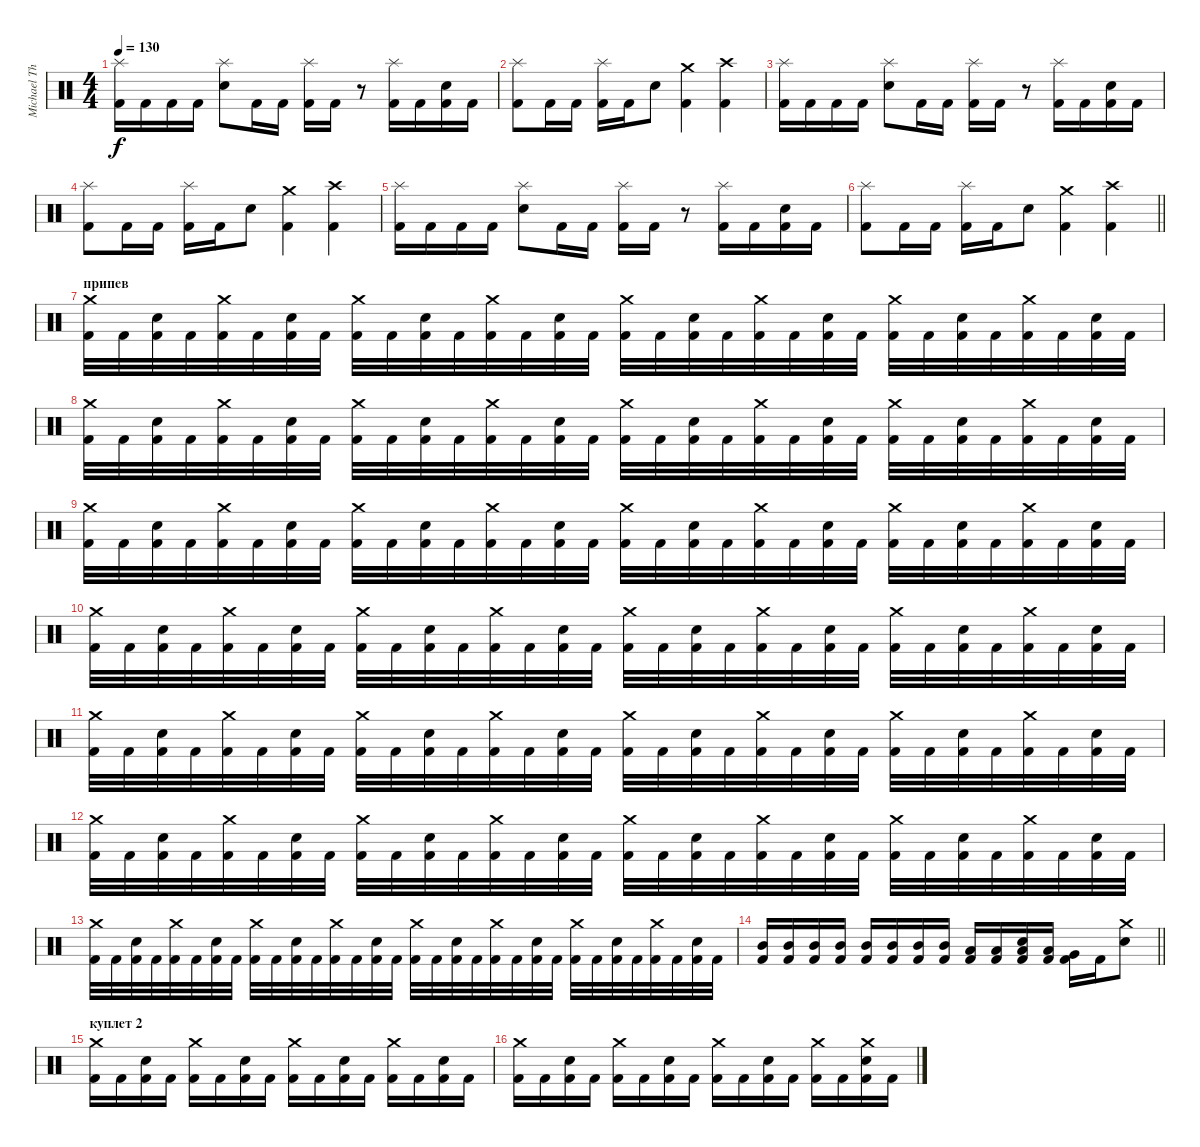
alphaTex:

\track ("Michael Thomas" "Michael Th") {instrument percussion}
\staff {score}
\articulation defaults
\ts (4 4)
\tempo 130
\clef neutral
\ks c
("Splash (hit)" "Kick (hit) 2").16{dy f} "Kick (hit) 2".16 "Kick (hit) 2".16 "Kick (hit) 2".16 ("Splash (hit)" "Electric Snare (hit)").8 "Kick (hit) 2".16 "Kick (hit) 2".16 ("Splash (hit)" "Kick (hit) 2").16 "Kick (hit) 2".16 r.8 ("Splash (hit)" "Kick (hit) 2").16 "Kick (hit) 2".16 ("Electric Snare (hit)" "Kick (hit) 2").16 "Kick (hit) 2".16 |
("Splash (hit)" "Kick (hit) 2").8 "Kick (hit) 2".16 "Kick (hit) 2".16 ("Splash (hit)" "Kick (hit) 2").16 "Kick (hit) 2".16 "Electric Snare (hit)".8 ("Crash medium (hit)" "Kick (hit) 2").4 ("Crash high (hit)" "Kick (hit) 2").4 |
("Splash (hit)" "Kick (hit) 2").16 "Kick (hit) 2".16 "Kick (hit) 2".16 "Kick (hit) 2".16 ("Splash (hit)" "Electric Snare (hit)").8 "Kick (hit) 2".16 "Kick (hit) 2".16 ("Splash (hit)" "Kick (hit) 2").16 "Kick (hit) 2".16 r.8 ("Splash (hit)" "Kick (hit) 2").16 "Kick (hit) 2".16 ("Electric Snare (hit)" "Kick (hit) 2").16 "Kick (hit) 2".16 |
("Splash (hit)" "Kick (hit) 2").8 "Kick (hit) 2".16 "Kick (hit) 2".16 ("Splash (hit)" "Kick (hit) 2").16 "Kick (hit) 2".16 "Electric Snare (hit)".8 ("Crash medium (hit)" "Kick (hit) 2").4 ("Crash high (hit)" "Kick (hit) 2").4 |
("Splash (hit)" "Kick (hit) 2").16 "Kick (hit) 2".16 "Kick (hit) 2".16 "Kick (hit) 2".16 ("Splash (hit)" "Electric Snare (hit)").8 "Kick (hit) 2".16 "Kick (hit) 2".16 ("Splash (hit)" "Kick (hit) 2").16 "Kick (hit) 2".16 r.8 ("Splash (hit)" "Kick (hit) 2").16 "Kick (hit) 2".16 ("Electric Snare (hit)" "Kick (hit) 2").16 "Kick (hit) 2".16 |
\barLineRight lightlight
("Splash (hit)" "Kick (hit) 2").8 "Kick (hit) 2".16 "Kick (hit) 2".16 ("Splash (hit)" "Kick (hit) 2").16 "Kick (hit) 2".16 "Electric Snare (hit)".8 ("Crash medium (hit)" "Kick (hit) 2").4 ("Crash high (hit)" "Kick (hit) 2").4 |
\section ("" "припев")
("Crash medium (hit)" "Kick (hit) 2").32 "Kick (hit) 2".32 ("Electric Snare (hit)" "Kick (hit) 2").32 "Kick (hit) 2".32 ("Crash medium (hit)" "Kick (hit) 2").32 "Kick (hit) 2".32 ("Electric Snare (hit)" "Kick (hit) 2").32 "Kick (hit) 2".32 ("Crash medium (hit)" "Kick (hit) 2").32 "Kick (hit) 2".32 ("Electric Snare (hit)" "Kick (hit) 2").32 "Kick (hit) 2".32 ("Crash medium (hit)" "Kick (hit) 2").32 "Kick (hit) 2".32 ("Electric Snare (hit)" "Kick (hit) 2").32 "Kick (hit) 2".32 ("Crash medium (hit)" "Kick (hit) 2").32 "Kick (hit) 2".32 ("Electric Snare (hit)" "Kick (hit) 2").32 "Kick (hit) 2".32 ("Crash medium (hit)" "Kick (hit) 2").32 "Kick (hit) 2".32 ("Electric Snare (hit)" "Kick (hit) 2").32 "Kick (hit) 2".32 ("Crash medium (hit)" "Kick (hit) 2").32 "Kick (hit) 2".32 ("Electric Snare (hit)" "Kick (hit) 2").32 "Kick (hit) 2".32 ("Crash medium (hit)" "Kick (hit) 2").32 "Kick (hit) 2".32 ("Electric Snare (hit)" "Kick (hit) 2").32 "Kick (hit) 2".32 |
("Crash medium (hit)" "Kick (hit) 2").32 "Kick (hit) 2".32 ("Electric Snare (hit)" "Kick (hit) 2").32 "Kick (hit) 2".32 ("Crash medium (hit)" "Kick (hit) 2").32 "Kick (hit) 2".32 ("Electric Snare (hit)" "Kick (hit) 2").32 "Kick (hit) 2".32 ("Crash medium (hit)" "Kick (hit) 2").32 "Kick (hit) 2".32 ("Electric Snare (hit)" "Kick (hit) 2").32 "Kick (hit) 2".32 ("Crash medium (hit)" "Kick (hit) 2").32 "Kick (hit) 2".32 ("Electric Snare (hit)" "Kick (hit) 2").32 "Kick (hit) 2".32 ("Crash medium (hit)" "Kick (hit) 2").32 "Kick (hit) 2".32 ("Electric Snare (hit)" "Kick (hit) 2").32 "Kick (hit) 2".32 ("Crash medium (hit)" "Kick (hit) 2").32 "Kick (hit) 2".32 ("Electric Snare (hit)" "Kick (hit) 2").32 "Kick (hit) 2".32 ("Crash medium (hit)" "Kick (hit) 2").32 "Kick (hit) 2".32 ("Electric Snare (hit)" "Kick (hit) 2").32 "Kick (hit) 2".32 ("Crash medium (hit)" "Kick (hit) 2").32 "Kick (hit) 2".32 ("Electric Snare (hit)" "Kick (hit) 2").32 "Kick (hit) 2".32 |
("Crash medium (hit)" "Kick (hit) 2").32 "Kick (hit) 2".32 ("Electric Snare (hit)" "Kick (hit) 2").32 "Kick (hit) 2".32 ("Crash medium (hit)" "Kick (hit) 2").32 "Kick (hit) 2".32 ("Electric Snare (hit)" "Kick (hit) 2").32 "Kick (hit) 2".32 ("Crash medium (hit)" "Kick (hit) 2").32 "Kick (hit) 2".32 ("Electric Snare (hit)" "Kick (hit) 2").32 "Kick (hit) 2".32 ("Crash medium (hit)" "Kick (hit) 2").32 "Kick (hit) 2".32 ("Electric Snare (hit)" "Kick (hit) 2").32 "Kick (hit) 2".32 ("Crash medium (hit)" "Kick (hit) 2").32 "Kick (hit) 2".32 ("Electric Snare (hit)" "Kick (hit) 2").32 "Kick (hit) 2".32 ("Crash medium (hit)" "Kick (hit) 2").32 "Kick (hit) 2".32 ("Electric Snare (hit)" "Kick (hit) 2").32 "Kick (hit) 2".32 ("Crash medium (hit)" "Kick (hit) 2").32 "Kick (hit) 2".32 ("Electric Snare (hit)" "Kick (hit) 2").32 "Kick (hit) 2".32 ("Crash medium (hit)" "Kick (hit) 2").32 "Kick (hit) 2".32 ("Electric Snare (hit)" "Kick (hit) 2").32 "Kick (hit) 2".32 |
("Crash medium (hit)" "Kick (hit) 2").32 "Kick (hit) 2".32 ("Electric Snare (hit)" "Kick (hit) 2").32 "Kick (hit) 2".32 ("Crash medium (hit)" "Kick (hit) 2").32 "Kick (hit) 2".32 ("Electric Snare (hit)" "Kick (hit) 2").32 "Kick (hit) 2".32 ("Crash medium (hit)" "Kick (hit) 2").32 "Kick (hit) 2".32 ("Electric Snare (hit)" "Kick (hit) 2").32 "Kick (hit) 2".32 ("Crash medium (hit)" "Kick (hit) 2").32 "Kick (hit) 2".32 ("Electric Snare (hit)" "Kick (hit) 2").32 "Kick (hit) 2".32 ("Crash medium (hit)" "Kick (hit) 2").32 "Kick (hit) 2".32 ("Electric Snare (hit)" "Kick (hit) 2").32 "Kick (hit) 2".32 ("Crash medium (hit)" "Kick (hit) 2").32 "Kick (hit) 2".32 ("Electric Snare (hit)" "Kick (hit) 2").32 "Kick (hit) 2".32 ("Crash medium (hit)" "Kick (hit) 2").32 "Kick (hit) 2".32 ("Electric Snare (hit)" "Kick (hit) 2").32 "Kick (hit) 2".32 ("Crash medium (hit)" "Kick (hit) 2").32 "Kick (hit) 2".32 ("Electric Snare (hit)" "Kick (hit) 2").32 "Kick (hit) 2".32 |
("Crash medium (hit)" "Kick (hit) 2").32 "Kick (hit) 2".32 ("Electric Snare (hit)" "Kick (hit) 2").32 "Kick (hit) 2".32 ("Crash medium (hit)" "Kick (hit) 2").32 "Kick (hit) 2".32 ("Electric Snare (hit)" "Kick (hit) 2").32 "Kick (hit) 2".32 ("Crash medium (hit)" "Kick (hit) 2").32 "Kick (hit) 2".32 ("Electric Snare (hit)" "Kick (hit) 2").32 "Kick (hit) 2".32 ("Crash medium (hit)" "Kick (hit) 2").32 "Kick (hit) 2".32 ("Electric Snare (hit)" "Kick (hit) 2").32 "Kick (hit) 2".32 ("Crash medium (hit)" "Kick (hit) 2").32 "Kick (hit) 2".32 ("Electric Snare (hit)" "Kick (hit) 2").32 "Kick (hit) 2".32 ("Crash medium (hit)" "Kick (hit) 2").32 "Kick (hit) 2".32 ("Electric Snare (hit)" "Kick (hit) 2").32 "Kick (hit) 2".32 ("Crash medium (hit)" "Kick (hit) 2").32 "Kick (hit) 2".32 ("Electric Snare (hit)" "Kick (hit) 2").32 "Kick (hit) 2".32 ("Crash medium (hit)" "Kick (hit) 2").32 "Kick (hit) 2".32 ("Electric Snare (hit)" "Kick (hit) 2").32 "Kick (hit) 2".32 |
("Crash medium (hit)" "Kick (hit) 2").32 "Kick (hit) 2".32 ("Electric Snare (hit)" "Kick (hit) 2").32 "Kick (hit) 2".32 ("Crash medium (hit)" "Kick (hit) 2").32 "Kick (hit) 2".32 ("Electric Snare (hit)" "Kick (hit) 2").32 "Kick (hit) 2".32 ("Crash medium (hit)" "Kick (hit) 2").32 "Kick (hit) 2".32 ("Electric Snare (hit)" "Kick (hit) 2").32 "Kick (hit) 2".32 ("Crash medium (hit)" "Kick (hit) 2").32 "Kick (hit) 2".32 ("Electric Snare (hit)" "Kick (hit) 2").32 "Kick (hit) 2".32 ("Crash medium (hit)" "Kick (hit) 2").32 "Kick (hit) 2".32 ("Electric Snare (hit)" "Kick (hit) 2").32 "Kick (hit) 2".32 ("Crash medium (hit)" "Kick (hit) 2").32 "Kick (hit) 2".32 ("Electric Snare (hit)" "Kick (hit) 2").32 "Kick (hit) 2".32 ("Crash medium (hit)" "Kick (hit) 2").32 "Kick (hit) 2".32 ("Electric Snare (hit)" "Kick (hit) 2").32 "Kick (hit) 2".32 ("Crash medium (hit)" "Kick (hit) 2").32 "Kick (hit) 2".32 ("Electric Snare (hit)" "Kick (hit) 2").32 "Kick (hit) 2".32 |
("Crash medium (hit)" "Kick (hit) 2").32 "Kick (hit) 2".32 ("Electric Snare (hit)" "Kick (hit) 2").32 "Kick (hit) 2".32 ("Crash medium (hit)" "Kick (hit) 2").32 "Kick (hit) 2".32 ("Electric Snare (hit)" "Kick (hit) 2").32 "Kick (hit) 2".32 ("Crash medium (hit)" "Kick (hit) 2").32 "Kick (hit) 2".32 ("Electric Snare (hit)" "Kick (hit) 2").32 "Kick (hit) 2".32 ("Crash medium (hit)" "Kick (hit) 2").32 "Kick (hit) 2".32 ("Electric Snare (hit)" "Kick (hit) 2").32 "Kick (hit) 2".32 ("Crash medium (hit)" "Kick (hit) 2").32 "Kick (hit) 2".32 ("Electric Snare (hit)" "Kick (hit) 2").32 "Kick (hit) 2".32 ("Crash medium (hit)" "Kick (hit) 2").32 "Kick (hit) 2".32 ("Electric Snare (hit)" "Kick (hit) 2").32 "Kick (hit) 2".32 ("Crash medium (hit)" "Kick (hit) 2").32 "Kick (hit) 2".32 ("Electric Snare (hit)" "Kick (hit) 2").32 "Kick (hit) 2".32 ("Crash medium (hit)" "Kick (hit) 2").32 "Kick (hit) 2".32 ("Electric Snare (hit)" "Kick (hit) 2").32 "Kick (hit) 2".32 |
\barLineRight lightlight
("Mid Tom (hit)" "Kick (hit) 2").16 ("Mid Tom (hit)" "Kick (hit) 2").16 ("Mid Tom (hit)" "Kick (hit) 2").16 ("Mid Tom (hit)" "Kick (hit) 2").16 ("Mid Tom (hit)" "Kick (hit) 2").16 ("Mid Tom (hit)" "Kick (hit) 2").16 ("Mid Tom (hit)" "Kick (hit) 2").16 ("Mid Tom (hit)" "Kick (hit) 2").16 ("Low Tom (hit)" "Kick (hit) 2").16 ("Low Tom (hit)" "Kick (hit) 2").16 ("Electric Snare (hit)" "Low Tom (hit)" "Kick (hit) 2").16 ("Low Tom (hit)" "Kick (hit) 2").16 ("Very Low Tom (hit)" "Kick (hit) 2").16 "Kick (hit) 2".16 ("Crash medium (hit)" "Electric Snare (hit)").8 |
\section ("" "куплет 2")
("Crash medium (hit)" "Kick (hit) 2").16 "Kick (hit) 2".16 ("Electric Snare (hit)" "Kick (hit) 2").16 "Kick (hit) 2".16 ("Crash medium (hit)" "Kick (hit) 2").16 "Kick (hit) 2".16 ("Electric Snare (hit)" "Kick (hit) 2").16 "Kick (hit) 2".16 ("Crash medium (hit)" "Kick (hit) 2").16 "Kick (hit) 2".16 ("Electric Snare (hit)" "Kick (hit) 2").16 "Kick (hit) 2".16 ("Crash medium (hit)" "Kick (hit) 2").16 "Kick (hit) 2".16 ("Electric Snare (hit)" "Kick (hit) 2").16 "Kick (hit) 2".16 |
("Crash medium (hit)" "Kick (hit) 2").16 "Kick (hit) 2".16 ("Electric Snare (hit)" "Kick (hit) 2").16 "Kick (hit) 2".16 ("Crash medium (hit)" "Kick (hit) 2").16 "Kick (hit) 2".16 ("Electric Snare (hit)" "Kick (hit) 2").16 "Kick (hit) 2".16 ("Crash medium (hit)" "Kick (hit) 2").16 "Kick (hit) 2".16 ("Electric Snare (hit)" "Kick (hit) 2").16 "Kick (hit) 2".16 ("Crash medium (hit)" "Kick (hit) 2").16 "Kick (hit) 2".16 ("Crash medium (hit)" "Electric Snare (hit)" "Kick (hit) 2").16 "Kick (hit) 2".16
